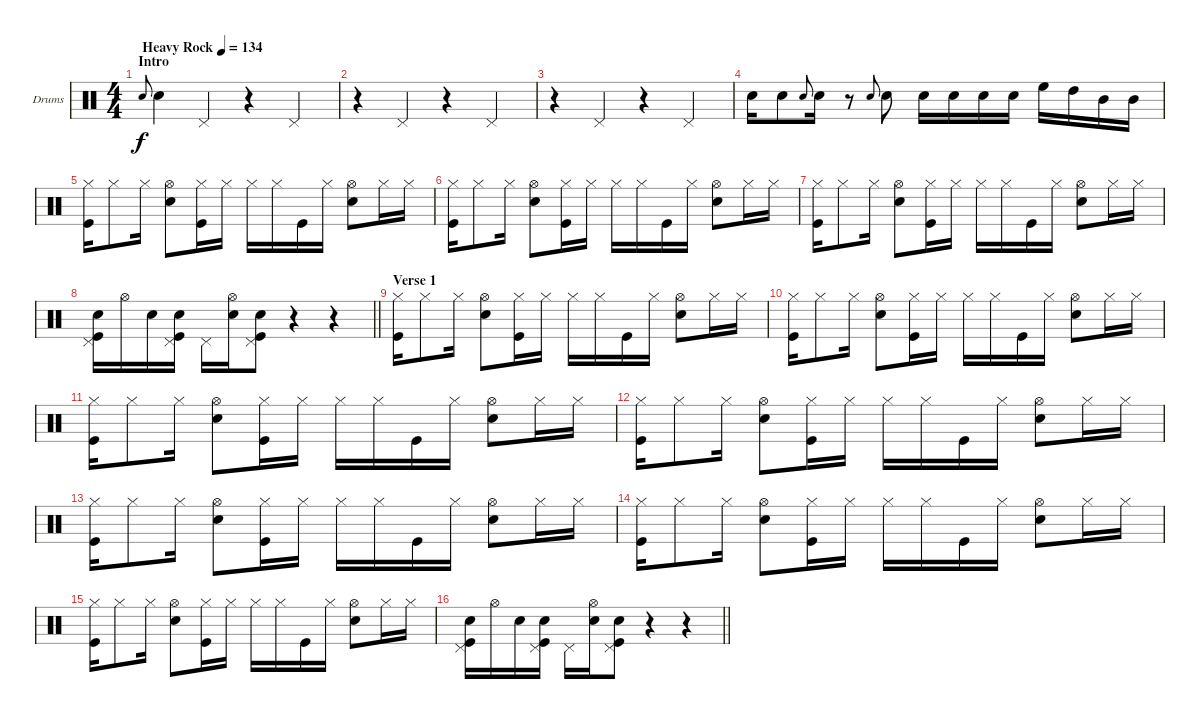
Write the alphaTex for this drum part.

\bracketExtendMode groupsimilarinstruments
\firstSystemTrackNameOrientation horizontal
\otherSystemsTrackNameOrientation horizontal
\track ("Drumkit" "Drums") {instrument percussion}
\staff {score}
\articulation defaults
\ts (4 4)
\beaming (8 2 2 2 2)
\section ("" "Intro")
\tempo (134 "Heavy Rock")
\clef neutral
\ks c "Snare (hit) 2".8{gr onbeat dy f} "Snare (hit) 2".4 "Pedal Hi-Hat (hit)".4
r.4 "Pedal Hi-Hat (hit)".4 |
r.4 "Pedal Hi-Hat (hit)".4 r.4 "Pedal Hi-Hat (hit)".4 |
r.4 "Pedal Hi-Hat (hit)".4 r.4 "Pedal Hi-Hat (hit)".4 |
"Snare (hit) 2".16 "Snare (hit) 2".8 "Snare (hit) 2".8{gr onbeat} "Snare (hit) 2".16 r.8 "Snare (hit) 2".8{gr onbeat} "Snare (hit) 2".8 "Snare (hit) 2".16 "Snare (hit) 2".16 "Snare (hit) 2".16 "Snare (hit) 2".16 "High Floor Tom (hit)".16 "High Tom (hit)".16 "Mid Tom (hit)".16 "Mid Tom (hit)".16 |
("Hi-Hat (closed)" "Kick (hit)").16 "Hi-Hat (closed)".8 "Hi-Hat (closed)".16 ("Hi-Hat (open)" "Snare (hit) 2").8 ("Hi-Hat (closed)" "Kick (hit)").16 "Hi-Hat (closed)".16 "Hi-Hat (closed)".16 "Hi-Hat (closed)".16 "Kick (hit)".16 "Hi-Hat (closed)".16 ("Hi-Hat (open)" "Snare (hit) 2").8 "Hi-Hat (closed)".16 "Hi-Hat (closed)".16 |
("Hi-Hat (closed)" "Kick (hit)").16 "Hi-Hat (closed)".8 "Hi-Hat (closed)".16 ("Hi-Hat (open)" "Snare (hit) 2").8 ("Hi-Hat (closed)" "Kick (hit)").16 "Hi-Hat (closed)".16 "Hi-Hat (closed)".16 "Hi-Hat (closed)".16 "Kick (hit)".16 "Hi-Hat (closed)".16 ("Hi-Hat (open)" "Snare (hit) 2").8 "Hi-Hat (closed)".16 "Hi-Hat (closed)".16 |
("Hi-Hat (closed)" "Kick (hit)").16 "Hi-Hat (closed)".8 "Hi-Hat (closed)".16 ("Hi-Hat (open)" "Snare (hit) 2").8 ("Hi-Hat (closed)" "Kick (hit)").16 "Hi-Hat (closed)".16 "Hi-Hat (closed)".16 "Hi-Hat (closed)".16 "Kick (hit)".16 "Hi-Hat (closed)".16 ("Hi-Hat (open)" "Snare (hit) 2").8 "Hi-Hat (closed)".16 "Hi-Hat (closed)".16 |
\barLineRight lightlight
("Pedal Hi-Hat (hit)" "Snare (hit) 2" "Kick (hit)").16 "Hi-Hat (open)".16 "Snare (hit) 2".16 ("Pedal Hi-Hat (hit)" "Snare (hit) 2" "Kick (hit)").16 "Pedal Hi-Hat (hit)".16 ("Hi-Hat (open)" "Snare (hit) 2").16 ("Pedal Hi-Hat (hit)" "Snare (hit) 2" "Kick (hit)").8 r.4 r.4 |
\section ("" "Verse 1")
("Hi-Hat (closed)" "Kick (hit)").16 "Hi-Hat (closed)".8 "Hi-Hat (closed)".16 ("Hi-Hat (open)" "Snare (hit) 2").8 ("Hi-Hat (closed)" "Kick (hit)").16 "Hi-Hat (closed)".16 "Hi-Hat (closed)".16 "Hi-Hat (closed)".16 "Kick (hit)".16 "Hi-Hat (closed)".16 ("Hi-Hat (open)" "Snare (hit) 2").8 "Hi-Hat (closed)".16 "Hi-Hat (closed)".16 |
("Hi-Hat (closed)" "Kick (hit)").16 "Hi-Hat (closed)".8 "Hi-Hat (closed)".16 ("Hi-Hat (open)" "Snare (hit) 2").8 ("Hi-Hat (closed)" "Kick (hit)").16 "Hi-Hat (closed)".16 "Hi-Hat (closed)".16 "Hi-Hat (closed)".16 "Kick (hit)".16 "Hi-Hat (closed)".16 ("Hi-Hat (open)" "Snare (hit) 2").8 "Hi-Hat (closed)".16 "Hi-Hat (closed)".16 |
("Hi-Hat (closed)" "Kick (hit)").16 "Hi-Hat (closed)".8 "Hi-Hat (closed)".16 ("Hi-Hat (open)" "Snare (hit) 2").8 ("Hi-Hat (closed)" "Kick (hit)").16 "Hi-Hat (closed)".16 "Hi-Hat (closed)".16 "Hi-Hat (closed)".16 "Kick (hit)".16 "Hi-Hat (closed)".16 ("Hi-Hat (open)" "Snare (hit) 2").8 "Hi-Hat (closed)".16 "Hi-Hat (closed)".16 |
("Hi-Hat (closed)" "Kick (hit)").16 "Hi-Hat (closed)".8 "Hi-Hat (closed)".16 ("Hi-Hat (open)" "Snare (hit) 2").8 ("Hi-Hat (closed)" "Kick (hit)").16 "Hi-Hat (closed)".16 "Hi-Hat (closed)".16 "Hi-Hat (closed)".16 "Kick (hit)".16 "Hi-Hat (closed)".16 ("Hi-Hat (open)" "Snare (hit) 2").8 "Hi-Hat (closed)".16 "Hi-Hat (closed)".16 |
("Hi-Hat (closed)" "Kick (hit)").16 "Hi-Hat (closed)".8 "Hi-Hat (closed)".16 ("Hi-Hat (open)" "Snare (hit) 2").8 ("Hi-Hat (closed)" "Kick (hit)").16 "Hi-Hat (closed)".16 "Hi-Hat (closed)".16 "Hi-Hat (closed)".16 "Kick (hit)".16 "Hi-Hat (closed)".16 ("Hi-Hat (open)" "Snare (hit) 2").8 "Hi-Hat (closed)".16 "Hi-Hat (closed)".16 |
("Hi-Hat (closed)" "Kick (hit)").16 "Hi-Hat (closed)".8 "Hi-Hat (closed)".16 ("Hi-Hat (open)" "Snare (hit) 2").8 ("Hi-Hat (closed)" "Kick (hit)").16 "Hi-Hat (closed)".16 "Hi-Hat (closed)".16 "Hi-Hat (closed)".16 "Kick (hit)".16 "Hi-Hat (closed)".16 ("Hi-Hat (open)" "Snare (hit) 2").8 "Hi-Hat (closed)".16 "Hi-Hat (closed)".16 |
("Hi-Hat (closed)" "Kick (hit)").16 "Hi-Hat (closed)".8 "Hi-Hat (closed)".16 ("Hi-Hat (open)" "Snare (hit) 2").8 ("Hi-Hat (closed)" "Kick (hit)").16 "Hi-Hat (closed)".16 "Hi-Hat (closed)".16 "Hi-Hat (closed)".16 "Kick (hit)".16 "Hi-Hat (closed)".16 ("Hi-Hat (open)" "Snare (hit) 2").8 "Hi-Hat (closed)".16 "Hi-Hat (closed)".16 |
\barLineRight lightlight
("Pedal Hi-Hat (hit)" "Snare (hit) 2" "Kick (hit)").16 "Hi-Hat (open)".16 "Snare (hit) 2".16 ("Pedal Hi-Hat (hit)" "Snare (hit) 2" "Kick (hit)").16 "Pedal Hi-Hat (hit)".16 ("Hi-Hat (open)" "Snare (hit) 2").16 ("Pedal Hi-Hat (hit)" "Snare (hit) 2" "Kick (hit)").8 r.4 r.4
